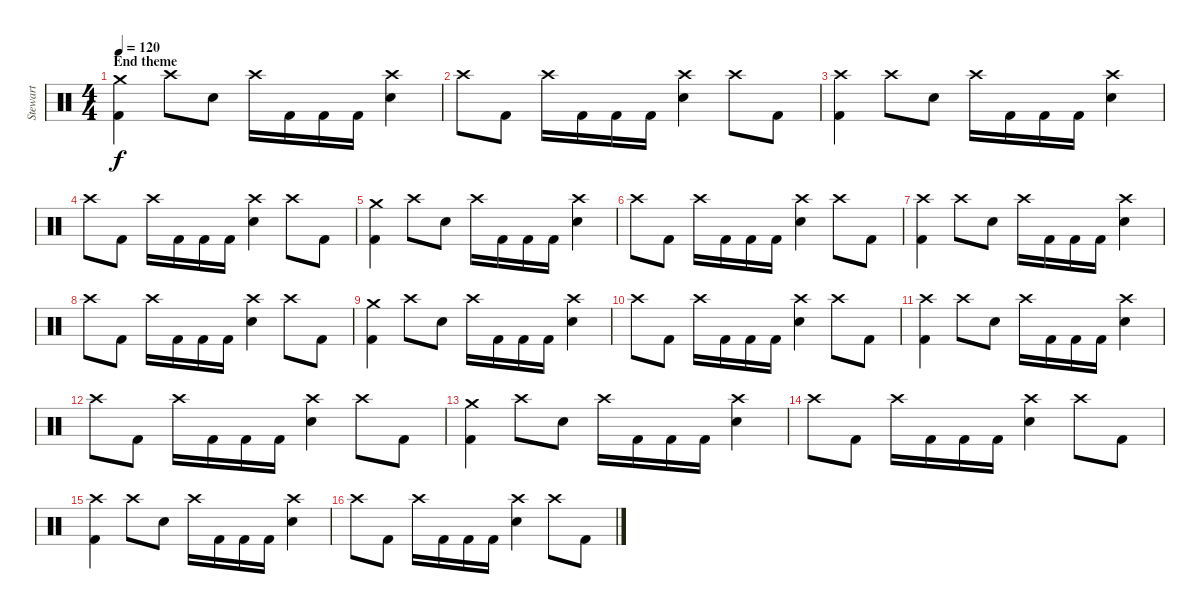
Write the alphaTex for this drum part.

\track ("Stewart" "Stewart") {instrument percussion}
\staff {score}
\articulation defaults
\ts (4 4)
\section ("" "End theme")
\tempo 120
\clef neutral
\ks c
("Crash medium (hit)" "Kick (hit) 2").4{dy f} "Crash high (hit)".8 "Electric Snare (hit)".8 "Crash high (hit)".16 "Kick (hit) 2".16 "Kick (hit) 2".16 "Kick (hit) 2".16 ("Crash high (hit)" "Electric Snare (hit)").4 |
"Crash high (hit)".8 "Kick (hit) 2".8 "Crash high (hit)".16 "Kick (hit) 2".16 "Kick (hit) 2".16 "Kick (hit) 2".16 ("Crash high (hit)" "Electric Snare (hit)").4 "Crash high (hit)".8 "Kick (hit) 2".8 |
("Crash high (hit)" "Kick (hit) 2").4 "Crash high (hit)".8 "Electric Snare (hit)".8 "Crash high (hit)".16 "Kick (hit) 2".16 "Kick (hit) 2".16 "Kick (hit) 2".16 ("Crash high (hit)" "Electric Snare (hit)").4 |
"Crash high (hit)".8 "Kick (hit) 2".8 "Crash high (hit)".16 "Kick (hit) 2".16 "Kick (hit) 2".16 "Kick (hit) 2".16 ("Crash high (hit)" "Electric Snare (hit)").4 "Crash high (hit)".8 "Kick (hit) 2".8 |
("Crash medium (hit)" "Kick (hit) 2").4 "Crash high (hit)".8 "Electric Snare (hit)".8 "Crash high (hit)".16 "Kick (hit) 2".16 "Kick (hit) 2".16 "Kick (hit) 2".16 ("Crash high (hit)" "Electric Snare (hit)").4 |
"Crash high (hit)".8 "Kick (hit) 2".8 "Crash high (hit)".16 "Kick (hit) 2".16 "Kick (hit) 2".16 "Kick (hit) 2".16 ("Crash high (hit)" "Electric Snare (hit)").4 "Crash high (hit)".8 "Kick (hit) 2".8 |
("Crash high (hit)" "Kick (hit) 2").4 "Crash high (hit)".8 "Electric Snare (hit)".8 "Crash high (hit)".16 "Kick (hit) 2".16 "Kick (hit) 2".16 "Kick (hit) 2".16 ("Crash high (hit)" "Electric Snare (hit)").4 |
"Crash high (hit)".8 "Kick (hit) 2".8 "Crash high (hit)".16 "Kick (hit) 2".16 "Kick (hit) 2".16 "Kick (hit) 2".16 ("Crash high (hit)" "Electric Snare (hit)").4 "Crash high (hit)".8 "Kick (hit) 2".8 |
("Crash medium (hit)" "Kick (hit) 2").4 "Crash high (hit)".8 "Electric Snare (hit)".8 "Crash high (hit)".16 "Kick (hit) 2".16 "Kick (hit) 2".16 "Kick (hit) 2".16 ("Crash high (hit)" "Electric Snare (hit)").4 |
"Crash high (hit)".8 "Kick (hit) 2".8 "Crash high (hit)".16 "Kick (hit) 2".16 "Kick (hit) 2".16 "Kick (hit) 2".16 ("Crash high (hit)" "Electric Snare (hit)").4 "Crash high (hit)".8 "Kick (hit) 2".8 |
("Crash high (hit)" "Kick (hit) 2").4 "Crash high (hit)".8 "Electric Snare (hit)".8 "Crash high (hit)".16 "Kick (hit) 2".16 "Kick (hit) 2".16 "Kick (hit) 2".16 ("Crash high (hit)" "Electric Snare (hit)").4 |
"Crash high (hit)".8 "Kick (hit) 2".8 "Crash high (hit)".16 "Kick (hit) 2".16 "Kick (hit) 2".16 "Kick (hit) 2".16 ("Crash high (hit)" "Electric Snare (hit)").4 "Crash high (hit)".8 "Kick (hit) 2".8 |
("Crash medium (hit)" "Kick (hit) 2").4 "Crash high (hit)".8 "Electric Snare (hit)".8 "Crash high (hit)".16 "Kick (hit) 2".16 "Kick (hit) 2".16 "Kick (hit) 2".16 ("Crash high (hit)" "Electric Snare (hit)").4 |
"Crash high (hit)".8 "Kick (hit) 2".8 "Crash high (hit)".16 "Kick (hit) 2".16 "Kick (hit) 2".16 "Kick (hit) 2".16 ("Crash high (hit)" "Electric Snare (hit)").4 "Crash high (hit)".8 "Kick (hit) 2".8 |
("Crash high (hit)" "Kick (hit) 2").4 "Crash high (hit)".8 "Electric Snare (hit)".8 "Crash high (hit)".16 "Kick (hit) 2".16 "Kick (hit) 2".16 "Kick (hit) 2".16 ("Crash high (hit)" "Electric Snare (hit)").4 |
"Crash high (hit)".8 "Kick (hit) 2".8 "Crash high (hit)".16 "Kick (hit) 2".16 "Kick (hit) 2".16 "Kick (hit) 2".16 ("Crash high (hit)" "Electric Snare (hit)").4 "Crash high (hit)".8 "Kick (hit) 2".8
